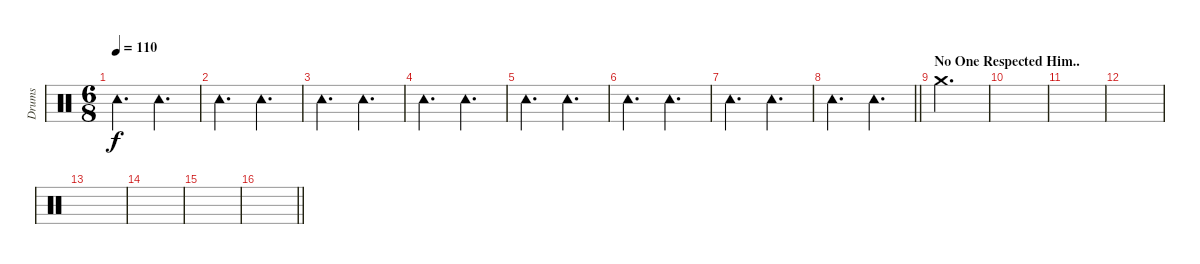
\track ("Drums" "Drums") {instrument percussion}
\staff {score}
\articulation defaults
\ts (6 8)
\tempo 110
\clef neutral
\ks c "Tambourine (hit)".4{d dy f} "Tambourine (hit)".4{d}
|
"Tambourine (hit)".4{d} "Tambourine (hit)".4{d} |
"Tambourine (hit)".4{d} "Tambourine (hit)".4{d} |
"Tambourine (hit)".4{d} "Tambourine (hit)".4{d} |
"Tambourine (hit)".4{d} "Tambourine (hit)".4{d} |
"Tambourine (hit)".4{d} "Tambourine (hit)".4{d} |
"Tambourine (hit)".4{d} "Tambourine (hit)".4{d} |
\barLineRight lightlight "Tambourine (hit)".4{d} "Tambourine (hit)".4{d}
|
\section ("" "No One Respected Him..")
"Crash medium (hit)".2{d} |
|
|
|
|
|
|
\barLineRight lightlight
